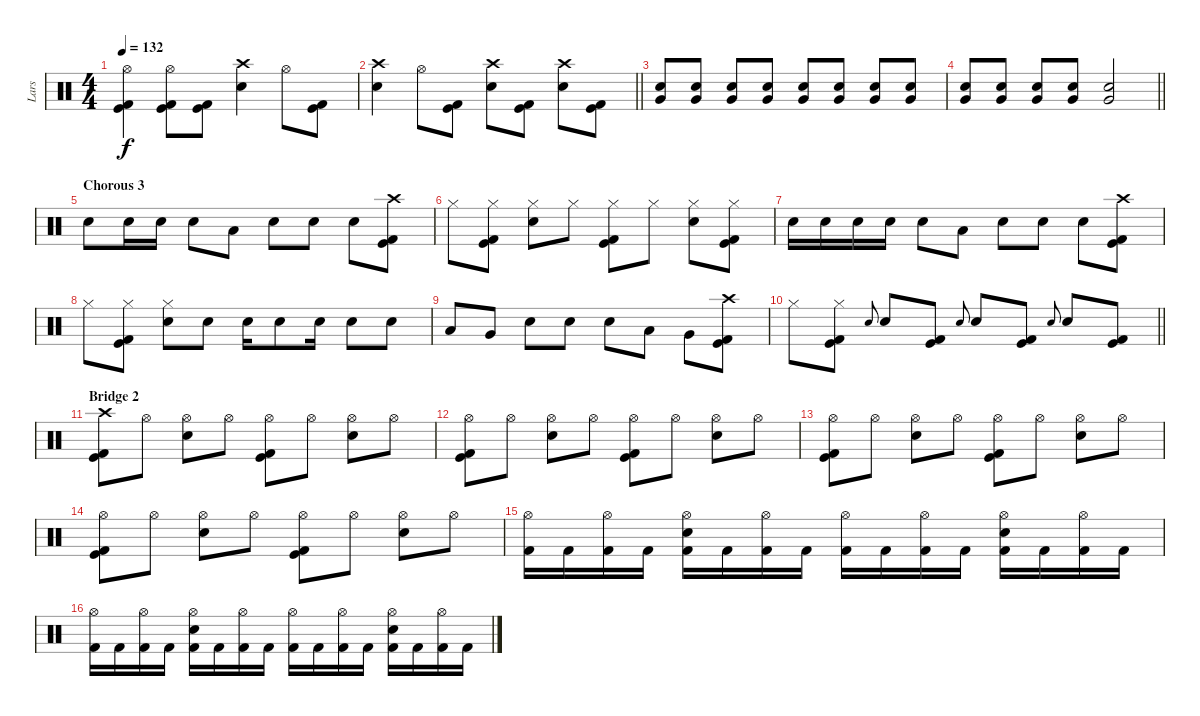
\track ("Lars" "Lars") {instrument percussion}
\staff {score}
\articulation defaults
\ts (4 4)
\tempo 132
\clef neutral
\ks c
("Hi-Hat (open)" "Kick (hit)" "Kick (hit) 2").4{dy f} ("Hi-Hat (open)" "Kick (hit)" "Kick (hit) 2").8 ("Kick (hit)" "Kick (hit) 2").8 ("Crash high (hit)" "Electric Snare (hit)").4 "Hi-Hat (open)".8 ("Kick (hit)" "Kick (hit) 2").8 |
\barLineRight lightlight
("Crash high (hit)" "Electric Snare (hit)").4 "Hi-Hat (open)".8 ("Kick (hit)" "Kick (hit) 2").8 ("Crash high (hit)" "Electric Snare (hit)").8 ("Kick (hit)" "Kick (hit) 2").8 ("Crash high (hit)" "Electric Snare (hit)").8 ("Kick (hit)" "Kick (hit) 2").8 |
("Electric Snare (hit)" "Very Low Tom (hit)").8{volume 8} ("Electric Snare (hit)" "Very Low Tom (hit)").8{volume 16} ("Electric Snare (hit)" "Very Low Tom (hit)").8 ("Electric Snare (hit)" "Very Low Tom (hit)").8 ("Electric Snare (hit)" "Very Low Tom (hit)").8 ("Electric Snare (hit)" "Very Low Tom (hit)").8 ("Electric Snare (hit)" "Very Low Tom (hit)").8 ("Electric Snare (hit)" "Very Low Tom (hit)").8 |
\barLineRight lightlight
("Electric Snare (hit)" "Very Low Tom (hit)").8 ("Electric Snare (hit)" "Very Low Tom (hit)").8 ("Electric Snare (hit)" "Very Low Tom (hit)").8 ("Electric Snare (hit)" "Very Low Tom (hit)").8 ("Electric Snare (hit)" "Very Low Tom (hit)").2 |
\section ("" "Chorous 3")
"Electric Snare (hit)".8 "Electric Snare (hit)".16 "Electric Snare (hit)".16 "Electric Snare (hit)".8 "Low Tom (hit)".8 "Electric Snare (hit)".8 "Electric Snare (hit)".8 "Electric Snare (hit)".8 ("Crash high (hit)" "Kick (hit)" "Kick (hit) 2").8 |
"Hi-Hat (closed)".8 ("Hi-Hat (closed)" "Kick (hit)" "Kick (hit) 2").8 ("Hi-Hat (closed)" "Electric Snare (hit)").8 "Hi-Hat (closed)".8 ("Hi-Hat (closed)" "Kick (hit)" "Kick (hit) 2").8 "Hi-Hat (closed)".8 ("Hi-Hat (closed)" "Electric Snare (hit)").8 ("Hi-Hat (closed)" "Kick (hit)" "Kick (hit) 2").8 |
"Electric Snare (hit)".16 "Electric Snare (hit)".16 "Electric Snare (hit)".16 "Electric Snare (hit)".16 "Electric Snare (hit)".8 "Low Tom (hit)".8 "Electric Snare (hit)".8 "Electric Snare (hit)".8 "Electric Snare (hit)".8 ("Crash high (hit)" "Kick (hit)" "Kick (hit) 2").8 |
"Hi-Hat (closed)".8 ("Hi-Hat (closed)" "Kick (hit)" "Kick (hit) 2").8 ("Hi-Hat (closed)" "Electric Snare (hit)").8 "Electric Snare (hit)".8 "Electric Snare (hit)".16 "Electric Snare (hit)".8 "Electric Snare (hit)".16 "Electric Snare (hit)".8 "Electric Snare (hit)".8 |
"Low Tom (hit)".8 "Very Low Tom (hit)".8 "Electric Snare (hit)".8 "Electric Snare (hit)".8 "Electric Snare (hit)".8 "Low Tom (hit)".8 "Very Low Tom (hit)".8 ("Crash high (hit)" "Kick (hit)" "Kick (hit) 2").8 |
\barLineRight lightlight "Hi-Hat (closed)".8
("Hi-Hat (closed)" "Kick (hit)" "Kick (hit) 2").8 "Electric Snare (hit)".8{gr onbeat} "Electric Snare (hit)".8 ("Kick (hit)" "Kick (hit) 2").8 "Electric Snare (hit)".8{gr onbeat} "Electric Snare (hit)".8 ("Kick (hit)" "Kick (hit) 2").8 "Electric Snare (hit)".8{gr onbeat} "Electric Snare (hit)".8 ("Kick (hit)" "Kick (hit) 2").8 |
\section ("" "Bridge 2")
("Crash high (hit)" "Kick (hit)" "Kick (hit) 2").8 "Hi-Hat (open)".8 ("Hi-Hat (open)" "Electric Snare (hit)").8 "Hi-Hat (open)".8 ("Hi-Hat (open)" "Kick (hit)" "Kick (hit) 2").8 "Hi-Hat (open)".8 ("Hi-Hat (open)" "Electric Snare (hit)").8 "Hi-Hat (open)".8 |
("Hi-Hat (open)" "Kick (hit)" "Kick (hit) 2").8 "Hi-Hat (open)".8 ("Hi-Hat (open)" "Electric Snare (hit)").8 "Hi-Hat (open)".8 ("Hi-Hat (open)" "Kick (hit)" "Kick (hit) 2").8 "Hi-Hat (open)".8 ("Hi-Hat (open)" "Electric Snare (hit)").8 "Hi-Hat (open)".8 |
("Hi-Hat (open)" "Kick (hit)" "Kick (hit) 2").8 "Hi-Hat (open)".8 ("Hi-Hat (open)" "Electric Snare (hit)").8 "Hi-Hat (open)".8 ("Hi-Hat (open)" "Kick (hit)" "Kick (hit) 2").8 "Hi-Hat (open)".8 ("Hi-Hat (open)" "Electric Snare (hit)").8 "Hi-Hat (open)".8 |
("Hi-Hat (open)" "Kick (hit)" "Kick (hit) 2").8 "Hi-Hat (open)".8 ("Hi-Hat (open)" "Electric Snare (hit)").8 "Hi-Hat (open)".8 ("Hi-Hat (open)" "Kick (hit)" "Kick (hit) 2").8 "Hi-Hat (open)".8 ("Hi-Hat (open)" "Electric Snare (hit)").8 "Hi-Hat (open)".8 |
("Hi-Hat (open)" "Kick (hit) 2").16 "Kick (hit) 2".16 ("Hi-Hat (open)" "Kick (hit) 2").16 "Kick (hit) 2".16 ("Hi-Hat (open)" "Electric Snare (hit)" "Kick (hit) 2").16 "Kick (hit) 2".16 ("Hi-Hat (open)" "Kick (hit) 2").16 "Kick (hit) 2".16 ("Hi-Hat (open)" "Kick (hit) 2").16 "Kick (hit) 2".16 ("Hi-Hat (open)" "Kick (hit) 2").16 "Kick (hit) 2".16 ("Hi-Hat (open)" "Electric Snare (hit)" "Kick (hit) 2").16 "Kick (hit) 2".16 ("Hi-Hat (open)" "Kick (hit) 2").16 "Kick (hit) 2".16 |
("Hi-Hat (open)" "Kick (hit) 2").16 "Kick (hit) 2".16 ("Hi-Hat (open)" "Kick (hit) 2").16 "Kick (hit) 2".16 ("Hi-Hat (open)" "Electric Snare (hit)" "Kick (hit) 2").16 "Kick (hit) 2".16 ("Hi-Hat (open)" "Kick (hit) 2").16 "Kick (hit) 2".16 ("Hi-Hat (open)" "Kick (hit) 2").16 "Kick (hit) 2".16 ("Hi-Hat (open)" "Kick (hit) 2").16 "Kick (hit) 2".16 ("Hi-Hat (open)" "Electric Snare (hit)" "Kick (hit) 2").16 "Kick (hit) 2".16 ("Hi-Hat (open)" "Kick (hit) 2").16 "Kick (hit) 2".16
